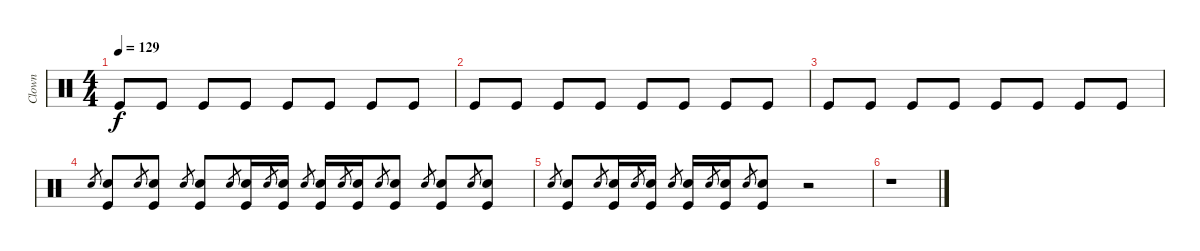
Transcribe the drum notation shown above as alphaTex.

\track ("Clown" "Clown") {instrument percussion}
\staff {score}
\articulation defaults
\ts (4 4)
\tempo 129
\clef neutral
\ks c "Kick (hit)".8{dy f} "Kick (hit)".8 "Kick (hit)".8 "Kick (hit)".8 "Kick (hit)".8 "Kick (hit)".8 "Kick (hit)".8 "Kick (hit)".8
|
"Kick (hit)".8 "Kick (hit)".8 "Kick (hit)".8 "Kick (hit)".8 "Kick (hit)".8 "Kick (hit)".8 "Kick (hit)".8 "Kick (hit)".8 |
"Kick (hit)".8 "Kick (hit)".8 "Kick (hit)".8 "Kick (hit)".8 "Kick (hit)".8 "Kick (hit)".8 "Kick (hit)".8 "Kick (hit)".8 |
"Snare (hit) 2".8{gr} ("Kick (hit)" "Snare (hit) 2").8 "Snare (hit) 2".8{gr} ("Kick (hit)" "Snare (hit) 2").8 "Snare (hit) 2".8{gr} ("Kick (hit)" "Snare (hit) 2").8 "Snare (hit) 2".8{gr} ("Snare (hit) 2" "Kick (hit)").16 "Snare (hit) 2".8{gr} ("Snare (hit) 2" "Kick (hit)").16 "Snare (hit) 2".8{gr} ("Snare (hit) 2" "Kick (hit)").16 "Snare (hit) 2".8{gr} ("Snare (hit) 2" "Kick (hit)").16 "Snare (hit) 2".8{gr} ("Kick (hit)" "Snare (hit) 2").8 "Snare (hit) 2".8{gr} ("Kick (hit)" "Snare (hit) 2").8 "Snare (hit) 2".8{gr} ("Kick (hit)" "Snare (hit) 2").8 |
"Snare (hit) 2".8{gr} ("Kick (hit)" "Snare (hit) 2").8 "Snare (hit) 2".8{gr} ("Snare (hit) 2" "Kick (hit)").16 "Snare (hit) 2".8{gr} ("Snare (hit) 2" "Kick (hit)").16 "Snare (hit) 2".8{gr} ("Snare (hit) 2" "Kick (hit)").16 "Snare (hit) 2".8{gr} ("Snare (hit) 2" "Kick (hit)").16 "Snare (hit) 2".8{gr} ("Kick (hit)" "Snare (hit) 2").8 r.2 |
r.1
